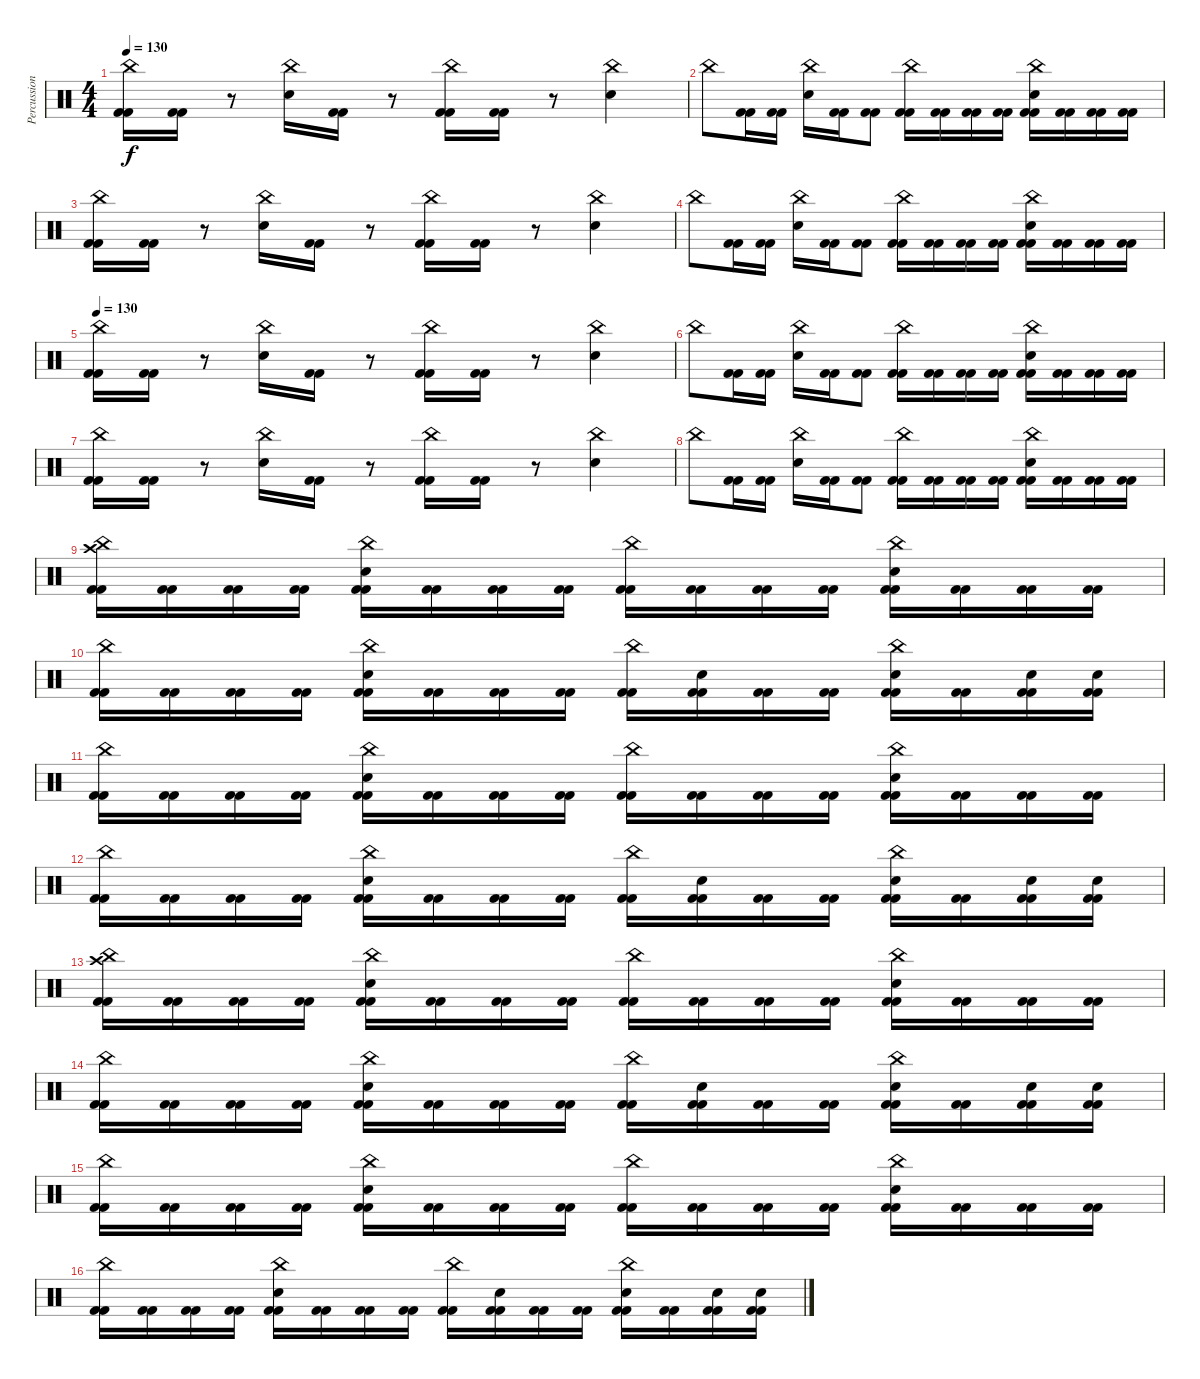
\track ("Percussion" "Percussion") {instrument percussion}
\staff {score}
\articulation defaults
\ts (4 4)
\tempo 120
\tempo 130
\clef neutral
\ks c
("China (hit)" "Kick (hit) 2" "Kick (hit) 2").16{dy f volume 16} ("Kick (hit) 2" "Kick (hit) 2").16 r.8 ("China (hit)" "Electric Snare (hit)").16 ("Kick (hit) 2" "Kick (hit) 2").16 r.8 ("China (hit)" "Kick (hit) 2" "Kick (hit) 2").16 ("Kick (hit) 2" "Kick (hit) 2").16 r.8 ("China (hit)" "Electric Snare (hit)").4 |
"China (hit)".8 ("Kick (hit) 2" "Kick (hit) 2").16 ("Kick (hit) 2" "Kick (hit) 2").16 ("China (hit)" "Electric Snare (hit)").16 ("Kick (hit) 2" "Kick (hit) 2").16 ("Kick (hit) 2" "Kick (hit) 2").8 ("China (hit)" "Kick (hit) 2" "Kick (hit) 2").16 ("Kick (hit) 2" "Kick (hit) 2").16 ("Kick (hit) 2" "Kick (hit) 2").16 ("Kick (hit) 2" "Kick (hit) 2").16 ("China (hit)" "Electric Snare (hit)" "Kick (hit) 2" "Kick (hit) 2").16 ("Kick (hit) 2" "Kick (hit) 2").16 ("Kick (hit) 2" "Kick (hit) 2").16 ("Kick (hit) 2" "Kick (hit) 2").16 |
("China (hit)" "Kick (hit) 2" "Kick (hit) 2").16 ("Kick (hit) 2" "Kick (hit) 2").16 r.8 ("China (hit)" "Electric Snare (hit)").16 ("Kick (hit) 2" "Kick (hit) 2").16 r.8 ("China (hit)" "Kick (hit) 2" "Kick (hit) 2").16 ("Kick (hit) 2" "Kick (hit) 2").16 r.8 ("China (hit)" "Electric Snare (hit)").4 |
"China (hit)".8 ("Kick (hit) 2" "Kick (hit) 2").16 ("Kick (hit) 2" "Kick (hit) 2").16 ("China (hit)" "Electric Snare (hit)").16 ("Kick (hit) 2" "Kick (hit) 2").16 ("Kick (hit) 2" "Kick (hit) 2").8 ("China (hit)" "Kick (hit) 2" "Kick (hit) 2").16 ("Kick (hit) 2" "Kick (hit) 2").16 ("Kick (hit) 2" "Kick (hit) 2").16 ("Kick (hit) 2" "Kick (hit) 2").16 ("China (hit)" "Electric Snare (hit)" "Kick (hit) 2" "Kick (hit) 2").16 ("Kick (hit) 2" "Kick (hit) 2").16 ("Kick (hit) 2" "Kick (hit) 2").16 ("Kick (hit) 2" "Kick (hit) 2").16 |
\tempo 130
("China (hit)" "Kick (hit) 2" "Kick (hit) 2").16{volume 16} ("Kick (hit) 2" "Kick (hit) 2").16 r.8 ("China (hit)" "Electric Snare (hit)").16 ("Kick (hit) 2" "Kick (hit) 2").16 r.8 ("China (hit)" "Kick (hit) 2" "Kick (hit) 2").16 ("Kick (hit) 2" "Kick (hit) 2").16 r.8 ("China (hit)" "Electric Snare (hit)").4 |
"China (hit)".8 ("Kick (hit) 2" "Kick (hit) 2").16 ("Kick (hit) 2" "Kick (hit) 2").16 ("China (hit)" "Electric Snare (hit)").16 ("Kick (hit) 2" "Kick (hit) 2").16 ("Kick (hit) 2" "Kick (hit) 2").8 ("China (hit)" "Kick (hit) 2" "Kick (hit) 2").16 ("Kick (hit) 2" "Kick (hit) 2").16 ("Kick (hit) 2" "Kick (hit) 2").16 ("Kick (hit) 2" "Kick (hit) 2").16 ("China (hit)" "Electric Snare (hit)" "Kick (hit) 2" "Kick (hit) 2").16 ("Kick (hit) 2" "Kick (hit) 2").16 ("Kick (hit) 2" "Kick (hit) 2").16 ("Kick (hit) 2" "Kick (hit) 2").16 |
("China (hit)" "Kick (hit) 2" "Kick (hit) 2").16 ("Kick (hit) 2" "Kick (hit) 2").16 r.8 ("China (hit)" "Electric Snare (hit)").16 ("Kick (hit) 2" "Kick (hit) 2").16 r.8 ("China (hit)" "Kick (hit) 2" "Kick (hit) 2").16 ("Kick (hit) 2" "Kick (hit) 2").16 r.8 ("China (hit)" "Electric Snare (hit)").4 |
"China (hit)".8 ("Kick (hit) 2" "Kick (hit) 2").16 ("Kick (hit) 2" "Kick (hit) 2").16 ("China (hit)" "Electric Snare (hit)").16 ("Kick (hit) 2" "Kick (hit) 2").16 ("Kick (hit) 2" "Kick (hit) 2").8 ("China (hit)" "Kick (hit) 2" "Kick (hit) 2").16 ("Kick (hit) 2" "Kick (hit) 2").16 ("Kick (hit) 2" "Kick (hit) 2").16 ("Kick (hit) 2" "Kick (hit) 2").16 ("China (hit)" "Electric Snare (hit)" "Kick (hit) 2" "Kick (hit) 2").16 ("Kick (hit) 2" "Kick (hit) 2").16 ("Kick (hit) 2" "Kick (hit) 2").16 ("Kick (hit) 2" "Kick (hit) 2").16 |
\section ("" "")
("China (hit)" "Crash high (hit)" "Kick (hit) 2" "Kick (hit) 2").16 ("Kick (hit) 2" "Kick (hit) 2").16 ("Kick (hit) 2" "Kick (hit) 2").16 ("Kick (hit) 2" "Kick (hit) 2").16 ("China (hit)" "Electric Snare (hit)" "Kick (hit) 2" "Kick (hit) 2").16 ("Kick (hit) 2" "Kick (hit) 2").16 ("Kick (hit) 2" "Kick (hit) 2").16 ("Kick (hit) 2" "Kick (hit) 2").16 ("China (hit)" "Kick (hit) 2" "Kick (hit) 2").16 ("Kick (hit) 2" "Kick (hit) 2").16 ("Kick (hit) 2" "Kick (hit) 2").16 ("Kick (hit) 2" "Kick (hit) 2").16 ("China (hit)" "Electric Snare (hit)" "Kick (hit) 2" "Kick (hit) 2").16 ("Kick (hit) 2" "Kick (hit) 2").16 ("Kick (hit) 2" "Kick (hit) 2").16 ("Kick (hit) 2" "Kick (hit) 2").16 |
("China (hit)" "Kick (hit) 2" "Kick (hit) 2").16 ("Kick (hit) 2" "Kick (hit) 2").16 ("Kick (hit) 2" "Kick (hit) 2").16 ("Kick (hit) 2" "Kick (hit) 2").16 ("China (hit)" "Electric Snare (hit)" "Kick (hit) 2" "Kick (hit) 2").16 ("Kick (hit) 2" "Kick (hit) 2").16 ("Kick (hit) 2" "Kick (hit) 2").16 ("Kick (hit) 2" "Kick (hit) 2").16 ("China (hit)" "Kick (hit) 2" "Kick (hit) 2").16 ("Electric Snare (hit)" "Kick (hit) 2" "Kick (hit) 2").16 ("Kick (hit) 2" "Kick (hit) 2").16 ("Kick (hit) 2" "Kick (hit) 2").16 ("China (hit)" "Electric Snare (hit)" "Kick (hit) 2" "Kick (hit) 2").16 ("Kick (hit) 2" "Kick (hit) 2").16 ("Electric Snare (hit)" "Kick (hit) 2" "Kick (hit) 2").16 ("Electric Snare (hit)" "Kick (hit) 2" "Kick (hit) 2").16 |
("China (hit)" "Kick (hit) 2" "Kick (hit) 2").16 ("Kick (hit) 2" "Kick (hit) 2").16 ("Kick (hit) 2" "Kick (hit) 2").16 ("Kick (hit) 2" "Kick (hit) 2").16 ("China (hit)" "Electric Snare (hit)" "Kick (hit) 2" "Kick (hit) 2").16 ("Kick (hit) 2" "Kick (hit) 2").16 ("Kick (hit) 2" "Kick (hit) 2").16 ("Kick (hit) 2" "Kick (hit) 2").16 ("China (hit)" "Kick (hit) 2" "Kick (hit) 2").16 ("Kick (hit) 2" "Kick (hit) 2").16 ("Kick (hit) 2" "Kick (hit) 2").16 ("Kick (hit) 2" "Kick (hit) 2").16 ("China (hit)" "Electric Snare (hit)" "Kick (hit) 2" "Kick (hit) 2").16 ("Kick (hit) 2" "Kick (hit) 2").16 ("Kick (hit) 2" "Kick (hit) 2").16 ("Kick (hit) 2" "Kick (hit) 2").16 |
("China (hit)" "Kick (hit) 2" "Kick (hit) 2").16 ("Kick (hit) 2" "Kick (hit) 2").16 ("Kick (hit) 2" "Kick (hit) 2").16 ("Kick (hit) 2" "Kick (hit) 2").16 ("China (hit)" "Electric Snare (hit)" "Kick (hit) 2" "Kick (hit) 2").16 ("Kick (hit) 2" "Kick (hit) 2").16 ("Kick (hit) 2" "Kick (hit) 2").16 ("Kick (hit) 2" "Kick (hit) 2").16 ("China (hit)" "Kick (hit) 2" "Kick (hit) 2").16 ("Electric Snare (hit)" "Kick (hit) 2" "Kick (hit) 2").16 ("Kick (hit) 2" "Kick (hit) 2").16 ("Kick (hit) 2" "Kick (hit) 2").16 ("China (hit)" "Electric Snare (hit)" "Kick (hit) 2" "Kick (hit) 2").16 ("Kick (hit) 2" "Kick (hit) 2").16 ("Electric Snare (hit)" "Kick (hit) 2" "Kick (hit) 2").16 ("Electric Snare (hit)" "Kick (hit) 2" "Kick (hit) 2").16 |
("China (hit)" "Crash high (hit)" "Kick (hit) 2" "Kick (hit) 2").16 ("Kick (hit) 2" "Kick (hit) 2").16 ("Kick (hit) 2" "Kick (hit) 2").16 ("Kick (hit) 2" "Kick (hit) 2").16 ("China (hit)" "Electric Snare (hit)" "Kick (hit) 2" "Kick (hit) 2").16 ("Kick (hit) 2" "Kick (hit) 2").16 ("Kick (hit) 2" "Kick (hit) 2").16 ("Kick (hit) 2" "Kick (hit) 2").16 ("China (hit)" "Kick (hit) 2" "Kick (hit) 2").16 ("Kick (hit) 2" "Kick (hit) 2").16 ("Kick (hit) 2" "Kick (hit) 2").16 ("Kick (hit) 2" "Kick (hit) 2").16 ("China (hit)" "Electric Snare (hit)" "Kick (hit) 2" "Kick (hit) 2").16 ("Kick (hit) 2" "Kick (hit) 2").16 ("Kick (hit) 2" "Kick (hit) 2").16 ("Kick (hit) 2" "Kick (hit) 2").16 |
("China (hit)" "Kick (hit) 2" "Kick (hit) 2").16 ("Kick (hit) 2" "Kick (hit) 2").16 ("Kick (hit) 2" "Kick (hit) 2").16 ("Kick (hit) 2" "Kick (hit) 2").16 ("China (hit)" "Electric Snare (hit)" "Kick (hit) 2" "Kick (hit) 2").16 ("Kick (hit) 2" "Kick (hit) 2").16 ("Kick (hit) 2" "Kick (hit) 2").16 ("Kick (hit) 2" "Kick (hit) 2").16 ("China (hit)" "Kick (hit) 2" "Kick (hit) 2").16 ("Electric Snare (hit)" "Kick (hit) 2" "Kick (hit) 2").16 ("Kick (hit) 2" "Kick (hit) 2").16 ("Kick (hit) 2" "Kick (hit) 2").16 ("China (hit)" "Electric Snare (hit)" "Kick (hit) 2" "Kick (hit) 2").16 ("Kick (hit) 2" "Kick (hit) 2").16 ("Electric Snare (hit)" "Kick (hit) 2" "Kick (hit) 2").16 ("Electric Snare (hit)" "Kick (hit) 2" "Kick (hit) 2").16 |
("China (hit)" "Kick (hit) 2" "Kick (hit) 2").16 ("Kick (hit) 2" "Kick (hit) 2").16 ("Kick (hit) 2" "Kick (hit) 2").16 ("Kick (hit) 2" "Kick (hit) 2").16 ("China (hit)" "Electric Snare (hit)" "Kick (hit) 2" "Kick (hit) 2").16 ("Kick (hit) 2" "Kick (hit) 2").16 ("Kick (hit) 2" "Kick (hit) 2").16 ("Kick (hit) 2" "Kick (hit) 2").16 ("China (hit)" "Kick (hit) 2" "Kick (hit) 2").16 ("Kick (hit) 2" "Kick (hit) 2").16 ("Kick (hit) 2" "Kick (hit) 2").16 ("Kick (hit) 2" "Kick (hit) 2").16 ("China (hit)" "Electric Snare (hit)" "Kick (hit) 2" "Kick (hit) 2").16 ("Kick (hit) 2" "Kick (hit) 2").16 ("Kick (hit) 2" "Kick (hit) 2").16 ("Kick (hit) 2" "Kick (hit) 2").16 |
("China (hit)" "Kick (hit) 2" "Kick (hit) 2").16 ("Kick (hit) 2" "Kick (hit) 2").16 ("Kick (hit) 2" "Kick (hit) 2").16 ("Kick (hit) 2" "Kick (hit) 2").16 ("China (hit)" "Electric Snare (hit)" "Kick (hit) 2" "Kick (hit) 2").16 ("Kick (hit) 2" "Kick (hit) 2").16 ("Kick (hit) 2" "Kick (hit) 2").16 ("Kick (hit) 2" "Kick (hit) 2").16 ("China (hit)" "Kick (hit) 2" "Kick (hit) 2").16 ("Electric Snare (hit)" "Kick (hit) 2" "Kick (hit) 2").16 ("Kick (hit) 2" "Kick (hit) 2").16 ("Kick (hit) 2" "Kick (hit) 2").16 ("China (hit)" "Electric Snare (hit)" "Kick (hit) 2" "Kick (hit) 2").16 ("Kick (hit) 2" "Kick (hit) 2").16 ("Electric Snare (hit)" "Kick (hit) 2" "Kick (hit) 2").16 ("Electric Snare (hit)" "Kick (hit) 2" "Kick (hit) 2").16
